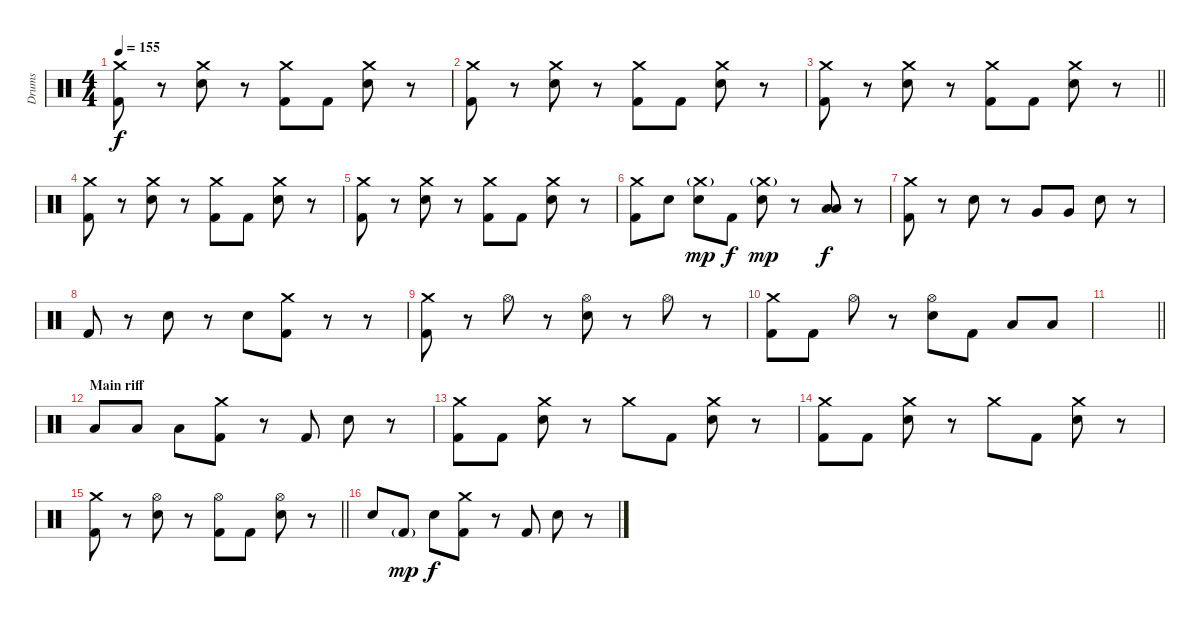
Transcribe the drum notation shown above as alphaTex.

\track ("Drums" "Drums") {instrument percussion}
\staff {score}
\articulation defaults
\ts (4 4)
\tempo 155
\clef neutral
\ks c
("Crash medium (hit)" "Kick (hit) 2").8{dy f} r.8 ("Crash medium (hit)" "Electric Snare (hit)").8 r.8 ("Crash medium (hit)" "Kick (hit) 2").8 "Kick (hit) 2".8 ("Crash medium (hit)" "Electric Snare (hit)").8 r.8 |
("Crash medium (hit)" "Kick (hit) 2").8 r.8 ("Crash medium (hit)" "Electric Snare (hit)").8 r.8 ("Crash medium (hit)" "Kick (hit) 2").8 "Kick (hit) 2".8 ("Crash medium (hit)" "Electric Snare (hit)").8 r.8 |
\barLineRight lightlight
("Crash medium (hit)" "Kick (hit) 2").8 r.8 ("Crash medium (hit)" "Electric Snare (hit)").8 r.8 ("Crash medium (hit)" "Kick (hit) 2").8 "Kick (hit) 2".8 ("Crash medium (hit)" "Electric Snare (hit)").8 r.8 |
("Crash medium (hit)" "Kick (hit) 2").8 r.8 ("Crash medium (hit)" "Electric Snare (hit)").8 r.8 ("Crash medium (hit)" "Kick (hit) 2").8 "Kick (hit) 2".8 ("Crash medium (hit)" "Electric Snare (hit)").8 r.8 |
("Crash medium (hit)" "Kick (hit) 2").8 r.8 ("Crash medium (hit)" "Electric Snare (hit)").8 r.8 ("Crash medium (hit)" "Kick (hit) 2").8 "Kick (hit) 2".8 ("Crash medium (hit)" "Electric Snare (hit)").8 r.8 |
("Crash medium (hit)" "Kick (hit) 2").8 "Electric Snare (hit)".8 ("Crash medium (hit)"{g} "Electric Snare (hit)").8{dy mp} "Kick (hit) 2".8{dy f} ("Crash medium (hit)"{g} "Electric Snare (hit)").8{dy mp} r.8 ("Low Tom (hit)" "Low Tom (hit)").8{dy f} r.8 |
("Crash medium (hit)" "Kick (hit) 2").8 r.8 "Electric Snare (hit)".8 r.8 "Very Low Tom (hit)".8 "Very Low Tom (hit)".8 "Electric Snare (hit)".8 r.8 |
"Kick (hit) 2".8 r.8 "Electric Snare (hit)".8 r.8 "Electric Snare (hit)".8 ("Crash medium (hit)" "Kick (hit) 2").8 r.8 r.8 |
("Crash medium (hit)" "Kick (hit) 2").8 r.8 "Hi-Hat (open)".8 r.8 ("Hi-Hat (open)" "Electric Snare (hit)").8 r.8 "Hi-Hat (open)".8 r.8 |
("Crash medium (hit)" "Kick (hit) 2").8 "Kick (hit) 2".8 "Hi-Hat (open)".8 r.8 ("Hi-Hat (open)" "Electric Snare (hit)").8 "Kick (hit) 2".8 "Low Tom (hit)".8 "Low Tom (hit)".8 |
\barLineRight lightlight
|
\section ("" "Main riff")
"Low Tom (hit)".8 "Low Tom (hit)".8 "Low Tom (hit)".8 ("Crash medium (hit)" "Kick (hit) 2").8 r.8 "Kick (hit) 2".8 "Electric Snare (hit)".8 r.8 |
("Crash medium (hit)" "Kick (hit) 2").8 "Kick (hit) 2".8 ("Crash medium (hit)" "Electric Snare (hit)").8 r.8 "Crash medium (hit)".8 "Kick (hit) 2".8 ("Crash medium (hit)" "Electric Snare (hit)").8 r.8 |
("Crash medium (hit)" "Kick (hit) 2").8 "Kick (hit) 2".8 ("Crash medium (hit)" "Electric Snare (hit)").8 r.8 "Crash medium (hit)".8 "Kick (hit) 2".8 ("Crash medium (hit)" "Electric Snare (hit)").8 r.8 |
\barLineRight lightlight
("Crash medium (hit)" "Kick (hit) 2").8 r.8 ("Hi-Hat (open)" "Electric Snare (hit)").8 r.8 ("Hi-Hat (open)" "Kick (hit) 2").8 "Kick (hit) 2".8 ("Hi-Hat (open)" "Electric Snare (hit)").8 r.8 |
"Electric Snare (hit)".8 "Kick (hit) 2"{g}.8{dy mp} "Electric Snare (hit)".8{dy f} ("Crash medium (hit)" "Kick (hit) 2").8 r.8 "Kick (hit) 2".8 "Electric Snare (hit)".8 r.8
